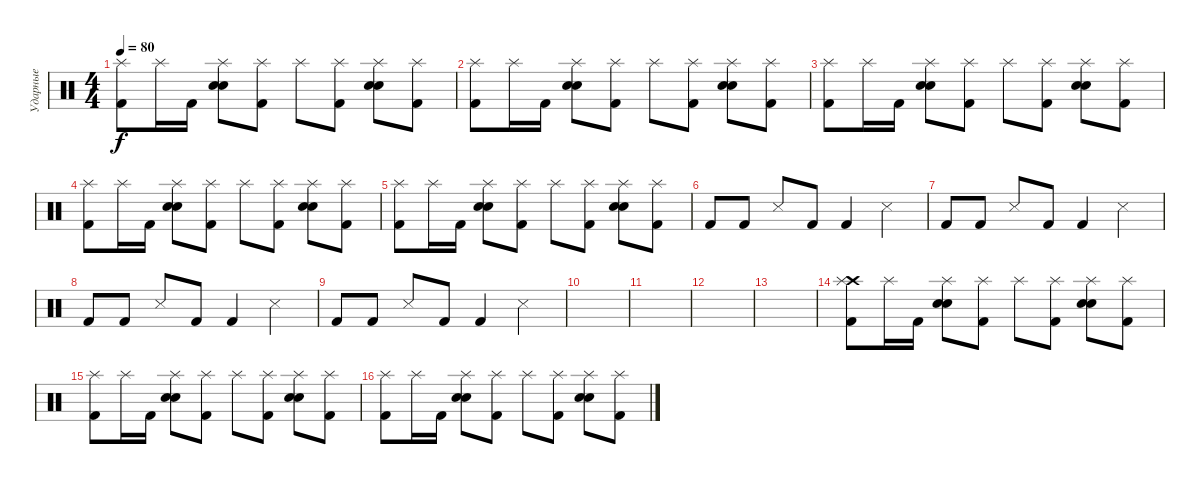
\track ("Ударные" "Ударные") {instrument percussion}
\staff {score}
\articulation defaults
\ts (4 4)
\tempo 80
\clef neutral
\ks c
("Splash (hit)" "Kick (hit) 2").8{dy f} "Splash (hit)".16 "Kick (hit) 2".16 ("Splash (hit)" "Snare (hit) 2" "Snare (hit) 2").8 ("Splash (hit)" "Kick (hit) 2").8 "Splash (hit)".8 ("Splash (hit)" "Kick (hit) 2").8 ("Splash (hit)" "Snare (hit) 2" "Snare (hit) 2").8 ("Splash (hit)" "Kick (hit) 2").8 |
("Splash (hit)" "Kick (hit) 2").8 "Splash (hit)".16 "Kick (hit) 2".16 ("Splash (hit)" "Snare (hit) 2" "Snare (hit) 2").8 ("Splash (hit)" "Kick (hit) 2").8 "Splash (hit)".8 ("Splash (hit)" "Kick (hit) 2").8 ("Splash (hit)" "Snare (hit) 2" "Snare (hit) 2").8 ("Splash (hit)" "Kick (hit) 2").8 |
("Splash (hit)" "Kick (hit) 2").8 "Splash (hit)".16 "Kick (hit) 2".16 ("Splash (hit)" "Snare (hit) 2" "Snare (hit) 2").8 ("Splash (hit)" "Kick (hit) 2").8 "Splash (hit)".8 ("Splash (hit)" "Kick (hit) 2").8 ("Splash (hit)" "Snare (hit) 2" "Snare (hit) 2").8 ("Splash (hit)" "Kick (hit) 2").8 |
("Splash (hit)" "Kick (hit) 2").8 "Splash (hit)".16 "Kick (hit) 2".16 ("Splash (hit)" "Snare (hit) 2" "Snare (hit) 2").8 ("Splash (hit)" "Kick (hit) 2").8 "Splash (hit)".8 ("Splash (hit)" "Kick (hit) 2").8 ("Splash (hit)" "Snare (hit) 2" "Snare (hit) 2").8 ("Splash (hit)" "Kick (hit) 2").8 |
("Splash (hit)" "Kick (hit) 2").8 "Splash (hit)".16 "Kick (hit) 2".16 ("Splash (hit)" "Snare (hit) 2" "Snare (hit) 2").8 ("Splash (hit)" "Kick (hit) 2").8 "Splash (hit)".8 ("Splash (hit)" "Kick (hit) 2").8 ("Splash (hit)" "Snare (hit) 2" "Snare (hit) 2").8 ("Splash (hit)" "Kick (hit) 2").8 |
"Kick (hit) 2".8 "Kick (hit) 2".8 "Snare (side stick) 3".8 "Kick (hit) 2".8 "Kick (hit) 2".4 "Snare (side stick) 3".4 |
"Kick (hit) 2".8 "Kick (hit) 2".8 "Snare (side stick) 3".8 "Kick (hit) 2".8 "Kick (hit) 2".4 "Snare (side stick) 3".4 |
"Kick (hit) 2".8 "Kick (hit) 2".8 "Snare (side stick) 3".8 "Kick (hit) 2".8 "Kick (hit) 2".4 "Snare (side stick) 3".4 |
"Kick (hit) 2".8 "Kick (hit) 2".8 "Snare (side stick) 3".8 "Kick (hit) 2".8 "Kick (hit) 2".4 "Snare (side stick) 3".4 |
|
|
|
|
("Crash high (hit)" "Splash (hit)" "Kick (hit) 2").8 "Splash (hit)".16 "Kick (hit) 2".16 ("Splash (hit)" "Snare (hit) 2" "Snare (hit) 2").8 ("Splash (hit)" "Kick (hit) 2").8 "Splash (hit)".8 ("Splash (hit)" "Kick (hit) 2").8 ("Splash (hit)" "Snare (hit) 2" "Snare (hit) 2").8 ("Splash (hit)" "Kick (hit) 2").8 |
("Splash (hit)" "Kick (hit) 2").8 "Splash (hit)".16 "Kick (hit) 2".16 ("Splash (hit)" "Snare (hit) 2" "Snare (hit) 2").8 ("Splash (hit)" "Kick (hit) 2").8 "Splash (hit)".8 ("Splash (hit)" "Kick (hit) 2").8 ("Splash (hit)" "Snare (hit) 2" "Snare (hit) 2").8 ("Splash (hit)" "Kick (hit) 2").8 |
("Splash (hit)" "Kick (hit) 2").8 "Splash (hit)".16 "Kick (hit) 2".16 ("Splash (hit)" "Snare (hit) 2" "Snare (hit) 2").8 ("Splash (hit)" "Kick (hit) 2").8 "Splash (hit)".8 ("Splash (hit)" "Kick (hit) 2").8 ("Splash (hit)" "Snare (hit) 2" "Snare (hit) 2").8 ("Splash (hit)" "Kick (hit) 2").8
